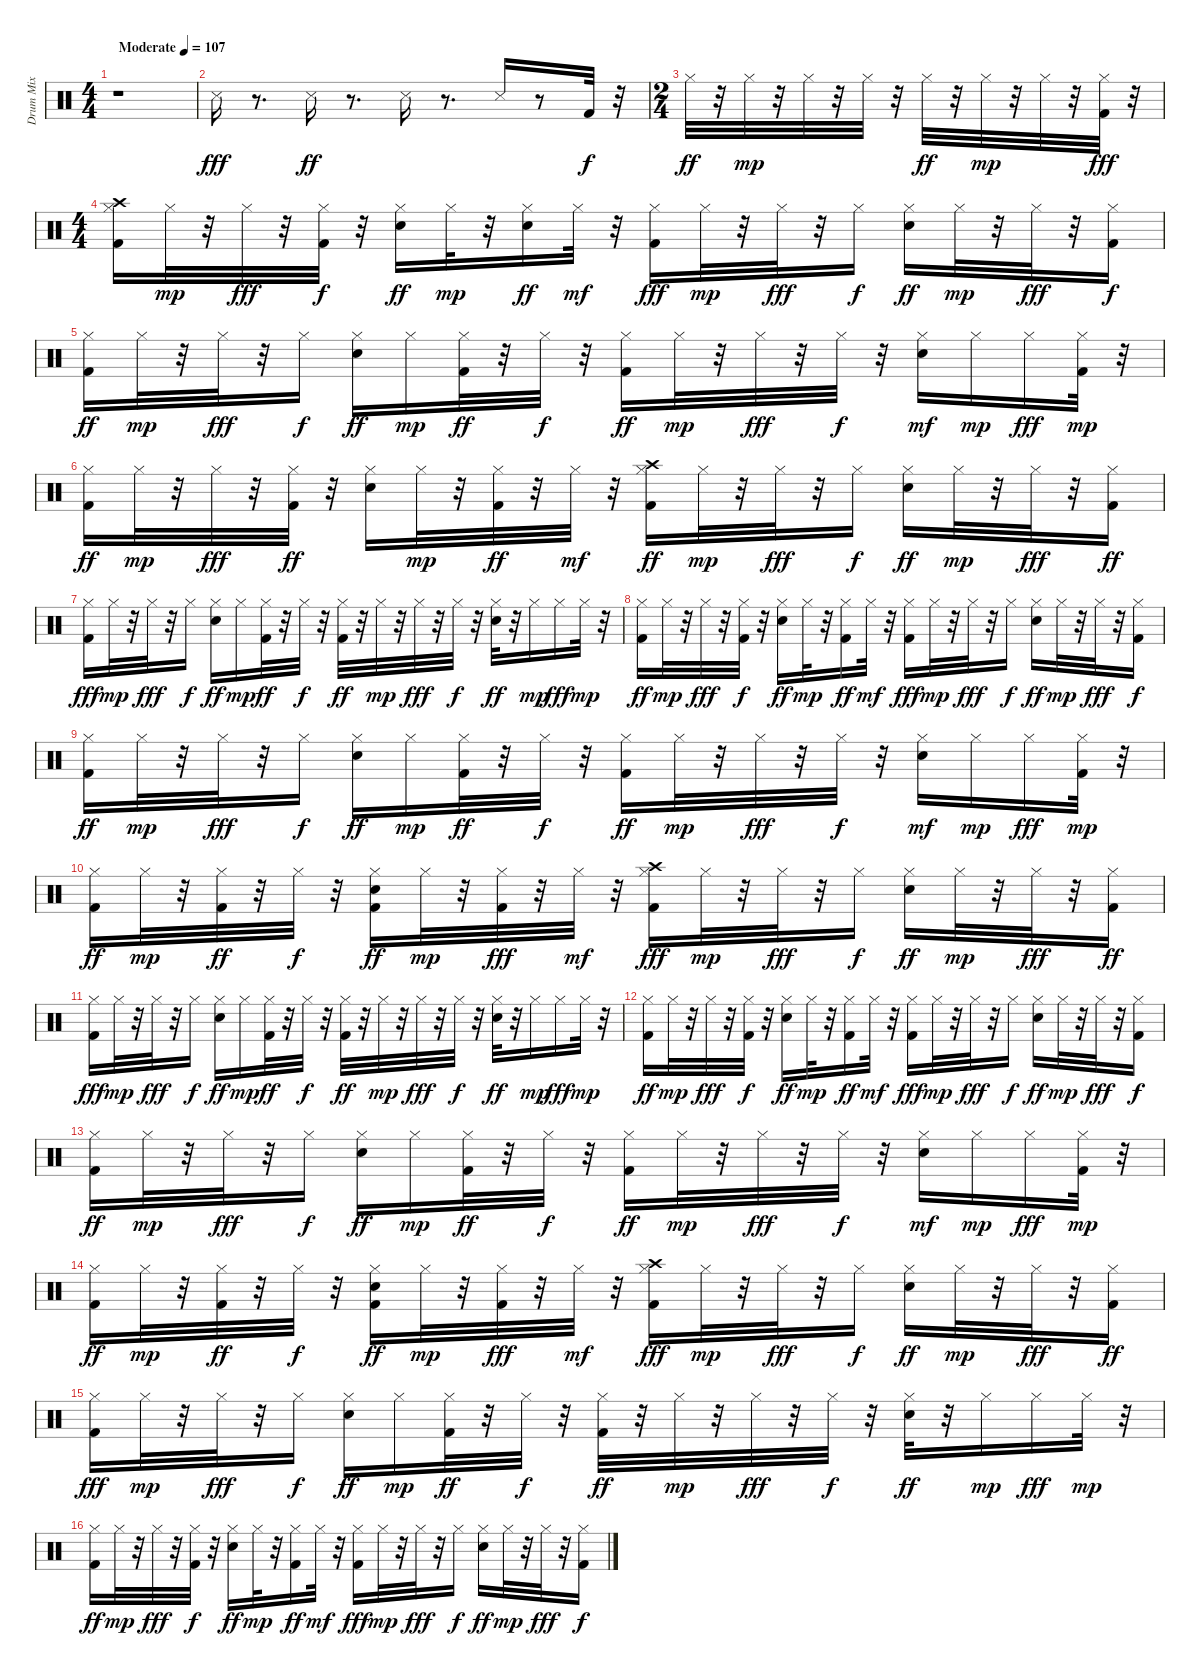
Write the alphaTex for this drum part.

\track ("Drum Mix" "Drum Mix") {instrument percussion}
\staff {score}
\articulation defaults
\ts (4 4)
\tempo (107 "Moderate")
\clef neutral
\ks c
r.1{dy fff} |
"Snare (side stick) 3".16 r.8{d} "Snare (side stick) 3".16{dy ff} r.8{d} "Snare (side stick) 3".16 r.8{d} "Snare (side stick) 3".16 r.8 "Kick (hit) 2".32{dy f} r.32 |
\ts (2 4)
"Hi-Hat (closed)".32{dy ff} r.32 "Hi-Hat (closed)".32{dy mp} r.32 "Hi-Hat (closed)".32 r.32 "Hi-Hat (closed)".32 r.32 "Hi-Hat (closed)".32{dy ff} r.32 "Hi-Hat (closed)".32{dy mp} r.32 "Hi-Hat (closed)".32 r.32 ("Hi-Hat (closed)" "Kick (hit) 2").32{dy fff} r.32 |
\ts (4 4)
("Hi-Hat (closed)" "Kick (hit) 2" "Crash high (hit)").16 "Hi-Hat (closed)".32{dy mp} r.32 "Hi-Hat (closed)".32{dy fff} r.32 ("Hi-Hat (closed)" "Kick (hit) 2").32{dy f} r.32 ("Hi-Hat (closed)" "Snare (hit) 2").16{dy ff} "Hi-Hat (closed)".32{dy mp} r.32 ("Hi-Hat (closed)" "Snare (hit) 2").16{dy ff} "Hi-Hat (closed)".32{dy mf} r.32 ("Hi-Hat (closed)" "Kick (hit) 2").16{dy fff} "Hi-Hat (closed)".32{dy mp} r.32 "Hi-Hat (closed)".32{dy fff} r.32 "Hi-Hat (closed)".16{dy f} ("Hi-Hat (closed)" "Snare (hit) 2").16{dy ff} "Hi-Hat (closed)".32{dy mp} r.32 "Hi-Hat (closed)".32{dy fff} r.32 ("Hi-Hat (closed)" "Kick (hit) 2").16{dy f} |
("Hi-Hat (closed)" "Kick (hit) 2").16{dy ff} "Hi-Hat (closed)".32{dy mp} r.32 "Hi-Hat (closed)".32{dy fff} r.32 "Hi-Hat (closed)".16{dy f} ("Hi-Hat (closed)" "Snare (hit) 2").16{dy ff} "Hi-Hat (closed)".16{dy mp} ("Hi-Hat (closed)" "Kick (hit) 2").32{dy ff} r.32 "Hi-Hat (closed)".32{dy f} r.32 ("Hi-Hat (closed)" "Kick (hit) 2").16{dy ff} "Hi-Hat (closed)".32{dy mp} r.32 "Hi-Hat (closed)".32{dy fff} r.32 "Hi-Hat (closed)".32{dy f} r.32 ("Hi-Hat (closed)" "Snare (hit) 2").16{dy mf} "Hi-Hat (closed)".16{dy mp} "Hi-Hat (closed)".16{dy fff} ("Hi-Hat (closed)" "Kick (hit) 2").32{dy mp} r.32 |
("Hi-Hat (closed)" "Kick (hit) 2").16{dy ff} "Hi-Hat (closed)".32{dy mp} r.32 "Hi-Hat (closed)".32{dy fff} r.32 ("Hi-Hat (closed)" "Kick (hit) 2").32{dy ff} r.32 ("Hi-Hat (closed)" "Snare (hit) 2").16 "Hi-Hat (closed)".32{dy mp} r.32 ("Hi-Hat (closed)" "Kick (hit) 2").32{dy ff} r.32 "Hi-Hat (closed)".32{dy mf} r.32 ("Hi-Hat (closed)" "Kick (hit) 2" "Crash high (hit)").16{dy ff} "Hi-Hat (closed)".32{dy mp} r.32 "Hi-Hat (closed)".32{dy fff} r.32 "Hi-Hat (closed)".16{dy f} ("Hi-Hat (closed)" "Snare (hit) 2").16{dy ff} "Hi-Hat (closed)".32{dy mp} r.32 "Hi-Hat (closed)".32{dy fff} r.32 ("Hi-Hat (closed)" "Kick (hit) 2").16{dy ff} |
("Hi-Hat (closed)" "Kick (hit) 2").16{dy fff} "Hi-Hat (closed)".32{dy mp} r.32 "Hi-Hat (closed)".32{dy fff} r.32 "Hi-Hat (closed)".16{dy f} ("Hi-Hat (closed)" "Snare (hit) 2").16{dy ff} "Hi-Hat (closed)".16{dy mp} ("Hi-Hat (closed)" "Kick (hit) 2").32{dy ff} r.32 "Hi-Hat (closed)".32{dy f} r.32 ("Hi-Hat (closed)" "Kick (hit) 2").32{dy ff} r.32 "Hi-Hat (closed)".32{dy mp} r.32 "Hi-Hat (closed)".32{dy fff} r.32 "Hi-Hat (closed)".32{dy f} r.32 ("Hi-Hat (closed)" "Snare (hit) 2").32{dy ff} r.32 "Hi-Hat (closed)".16{dy mp} "Hi-Hat (closed)".16{dy fff} "Hi-Hat (closed)".32{dy mp} r.32 |
("Hi-Hat (closed)" "Kick (hit) 2").16{dy ff} "Hi-Hat (closed)".32{dy mp} r.32 "Hi-Hat (closed)".32{dy fff} r.32 ("Hi-Hat (closed)" "Kick (hit) 2").32{dy f} r.32 ("Hi-Hat (closed)" "Snare (hit) 2").16{dy ff} "Hi-Hat (closed)".32{dy mp} r.32 ("Hi-Hat (closed)" "Kick (hit) 2").16{dy ff} "Hi-Hat (closed)".32{dy mf} r.32 ("Hi-Hat (closed)" "Kick (hit) 2").16{dy fff} "Hi-Hat (closed)".32{dy mp} r.32 "Hi-Hat (closed)".32{dy fff} r.32 "Hi-Hat (closed)".16{dy f} ("Hi-Hat (closed)" "Snare (hit) 2").16{dy ff} "Hi-Hat (closed)".32{dy mp} r.32 "Hi-Hat (closed)".32{dy fff} r.32 ("Hi-Hat (closed)" "Kick (hit) 2").16{dy f} |
("Hi-Hat (closed)" "Kick (hit) 2").16{dy ff} "Hi-Hat (closed)".32{dy mp} r.32 "Hi-Hat (closed)".32{dy fff} r.32 "Hi-Hat (closed)".16{dy f} ("Hi-Hat (closed)" "Snare (hit) 2").16{dy ff} "Hi-Hat (closed)".16{dy mp} ("Hi-Hat (closed)" "Kick (hit) 2").32{dy ff} r.32 "Hi-Hat (closed)".32{dy f} r.32 ("Hi-Hat (closed)" "Kick (hit) 2").16{dy ff} "Hi-Hat (closed)".32{dy mp} r.32 "Hi-Hat (closed)".32{dy fff} r.32 "Hi-Hat (closed)".32{dy f} r.32 ("Hi-Hat (closed)" "Snare (hit) 2").16{dy mf} "Hi-Hat (closed)".16{dy mp} "Hi-Hat (closed)".16{dy fff} ("Hi-Hat (closed)" "Kick (hit) 2").32{dy mp} r.32 |
("Hi-Hat (closed)" "Kick (hit) 2").16{dy ff} "Hi-Hat (closed)".32{dy mp} r.32 ("Hi-Hat (closed)" "Kick (hit) 2").32{dy ff} r.32 "Hi-Hat (closed)".32{dy f} r.32 ("Hi-Hat (closed)" "Snare (hit) 2" "Kick (hit) 2").16{dy ff} "Hi-Hat (closed)".32{dy mp} r.32 ("Hi-Hat (closed)" "Kick (hit) 2").32{dy fff} r.32 "Hi-Hat (closed)".32{dy mf} r.32 ("Hi-Hat (closed)" "Kick (hit) 2" "Crash high (hit)").16{dy fff} "Hi-Hat (closed)".32{dy mp} r.32 "Hi-Hat (closed)".32{dy fff} r.32 "Hi-Hat (closed)".16{dy f} ("Hi-Hat (closed)" "Snare (hit) 2").16{dy ff} "Hi-Hat (closed)".32{dy mp} r.32 "Hi-Hat (closed)".32{dy fff} r.32 ("Hi-Hat (closed)" "Kick (hit) 2").16{dy ff} |
("Hi-Hat (closed)" "Kick (hit) 2").16{dy fff} "Hi-Hat (closed)".32{dy mp} r.32 "Hi-Hat (closed)".32{dy fff} r.32 "Hi-Hat (closed)".16{dy f} ("Hi-Hat (closed)" "Snare (hit) 2").16{dy ff} "Hi-Hat (closed)".16{dy mp} ("Hi-Hat (closed)" "Kick (hit) 2").32{dy ff} r.32 "Hi-Hat (closed)".32{dy f} r.32 ("Hi-Hat (closed)" "Kick (hit) 2").32{dy ff} r.32 "Hi-Hat (closed)".32{dy mp} r.32 "Hi-Hat (closed)".32{dy fff} r.32 "Hi-Hat (closed)".32{dy f} r.32 ("Hi-Hat (closed)" "Snare (hit) 2").32{dy ff} r.32 "Hi-Hat (closed)".16{dy mp} "Hi-Hat (closed)".16{dy fff} "Hi-Hat (closed)".32{dy mp} r.32 |
("Hi-Hat (closed)" "Kick (hit) 2").16{dy ff} "Hi-Hat (closed)".32{dy mp} r.32 "Hi-Hat (closed)".32{dy fff} r.32 ("Hi-Hat (closed)" "Kick (hit) 2").32{dy f} r.32 ("Hi-Hat (closed)" "Snare (hit) 2").16{dy ff} "Hi-Hat (closed)".32{dy mp} r.32 ("Hi-Hat (closed)" "Kick (hit) 2").16{dy ff} "Hi-Hat (closed)".32{dy mf} r.32 ("Hi-Hat (closed)" "Kick (hit) 2").16{dy fff} "Hi-Hat (closed)".32{dy mp} r.32 "Hi-Hat (closed)".32{dy fff} r.32 "Hi-Hat (closed)".16{dy f} ("Hi-Hat (closed)" "Snare (hit) 2").16{dy ff} "Hi-Hat (closed)".32{dy mp} r.32 "Hi-Hat (closed)".32{dy fff} r.32 ("Hi-Hat (closed)" "Kick (hit) 2").16{dy f} |
("Hi-Hat (closed)" "Kick (hit) 2").16{dy ff} "Hi-Hat (closed)".32{dy mp} r.32 "Hi-Hat (closed)".32{dy fff} r.32 "Hi-Hat (closed)".16{dy f} ("Hi-Hat (closed)" "Snare (hit) 2").16{dy ff} "Hi-Hat (closed)".16{dy mp} ("Hi-Hat (closed)" "Kick (hit) 2").32{dy ff} r.32 "Hi-Hat (closed)".32{dy f} r.32 ("Hi-Hat (closed)" "Kick (hit) 2").16{dy ff} "Hi-Hat (closed)".32{dy mp} r.32 "Hi-Hat (closed)".32{dy fff} r.32 "Hi-Hat (closed)".32{dy f} r.32 ("Hi-Hat (closed)" "Snare (hit) 2").16{dy mf} "Hi-Hat (closed)".16{dy mp} "Hi-Hat (closed)".16{dy fff} ("Hi-Hat (closed)" "Kick (hit) 2").32{dy mp} r.32 |
("Hi-Hat (closed)" "Kick (hit) 2").16{dy ff} "Hi-Hat (closed)".32{dy mp} r.32 ("Hi-Hat (closed)" "Kick (hit) 2").32{dy ff} r.32 "Hi-Hat (closed)".32{dy f} r.32 ("Hi-Hat (closed)" "Snare (hit) 2" "Kick (hit) 2").16{dy ff} "Hi-Hat (closed)".32{dy mp} r.32 ("Hi-Hat (closed)" "Kick (hit) 2").32{dy fff} r.32 "Hi-Hat (closed)".32{dy mf} r.32 ("Hi-Hat (closed)" "Kick (hit) 2" "Crash high (hit)").16{dy fff} "Hi-Hat (closed)".32{dy mp} r.32 "Hi-Hat (closed)".32{dy fff} r.32 "Hi-Hat (closed)".16{dy f} ("Hi-Hat (closed)" "Snare (hit) 2").16{dy ff} "Hi-Hat (closed)".32{dy mp} r.32 "Hi-Hat (closed)".32{dy fff} r.32 ("Hi-Hat (closed)" "Kick (hit) 2").16{dy ff} |
("Hi-Hat (closed)" "Kick (hit) 2").16{dy fff} "Hi-Hat (closed)".32{dy mp} r.32 "Hi-Hat (closed)".32{dy fff} r.32 "Hi-Hat (closed)".16{dy f} ("Hi-Hat (closed)" "Snare (hit) 2").16{dy ff} "Hi-Hat (closed)".16{dy mp} ("Hi-Hat (closed)" "Kick (hit) 2").32{dy ff} r.32 "Hi-Hat (closed)".32{dy f} r.32 ("Hi-Hat (closed)" "Kick (hit) 2").32{dy ff} r.32 "Hi-Hat (closed)".32{dy mp} r.32 "Hi-Hat (closed)".32{dy fff} r.32 "Hi-Hat (closed)".32{dy f} r.32 ("Hi-Hat (closed)" "Snare (hit) 2").32{dy ff} r.32 "Hi-Hat (closed)".16{dy mp} "Hi-Hat (closed)".16{dy fff} "Hi-Hat (closed)".32{dy mp} r.32 |
("Hi-Hat (closed)" "Kick (hit) 2").16{dy ff} "Hi-Hat (closed)".32{dy mp} r.32 "Hi-Hat (closed)".32{dy fff} r.32 ("Hi-Hat (closed)" "Kick (hit) 2").32{dy f} r.32 ("Hi-Hat (closed)" "Snare (hit) 2").16{dy ff} "Hi-Hat (closed)".32{dy mp} r.32 ("Hi-Hat (closed)" "Kick (hit) 2").16{dy ff} "Hi-Hat (closed)".32{dy mf} r.32 ("Hi-Hat (closed)" "Kick (hit) 2").16{dy fff} "Hi-Hat (closed)".32{dy mp} r.32 "Hi-Hat (closed)".32{dy fff} r.32 "Hi-Hat (closed)".16{dy f} ("Hi-Hat (closed)" "Snare (hit) 2").16{dy ff} "Hi-Hat (closed)".32{dy mp} r.32 "Hi-Hat (closed)".32{dy fff} r.32 ("Hi-Hat (closed)" "Kick (hit) 2").16{dy f}
